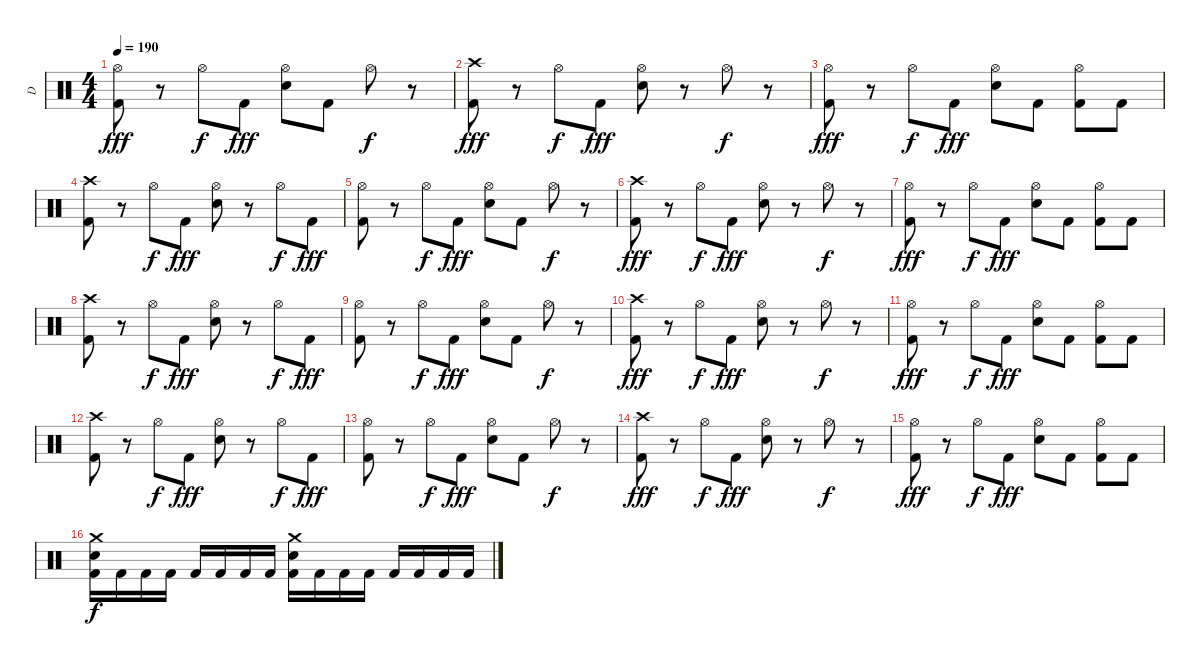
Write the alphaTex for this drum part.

\track ("D" "D") {instrument percussion}
\staff {score}
\articulation defaults
\ts (4 4)
\tempo 190
\clef neutral
\ks c
("Hi-Hat (open)" "Kick (hit) 2").8{dy fff} r.8 "Hi-Hat (open)".8{dy f} "Kick (hit) 2".8{dy fff} ("Hi-Hat (open)" "Electric Snare (hit)").8 "Kick (hit) 2".8 "Hi-Hat (open)".8{dy f} r.8 |
("Crash high (hit)" "Kick (hit) 2").8{dy fff} r.8 "Hi-Hat (open)".8{dy f} "Kick (hit) 2".8{dy fff} ("Hi-Hat (open)" "Electric Snare (hit)").8 r.8 "Hi-Hat (open)".8{dy f} r.8 |
("Hi-Hat (open)" "Kick (hit) 2").8{dy fff} r.8 "Hi-Hat (open)".8{dy f} "Kick (hit) 2".8{dy fff} ("Hi-Hat (open)" "Electric Snare (hit)").8 "Kick (hit) 2".8 ("Hi-Hat (open)" "Kick (hit) 2").8 "Kick (hit) 2".8 |
("Crash high (hit)" "Kick (hit) 2").8 r.8 "Hi-Hat (open)".8{dy f} "Kick (hit) 2".8{dy fff} ("Hi-Hat (open)" "Electric Snare (hit)").8 r.8 "Hi-Hat (open)".8{dy f} "Kick (hit) 2".8{dy fff} |
("Hi-Hat (open)" "Kick (hit) 2").8 r.8 "Hi-Hat (open)".8{dy f} "Kick (hit) 2".8{dy fff} ("Hi-Hat (open)" "Electric Snare (hit)").8 "Kick (hit) 2".8 "Hi-Hat (open)".8{dy f} r.8 |
("Crash high (hit)" "Kick (hit) 2").8{dy fff} r.8 "Hi-Hat (open)".8{dy f} "Kick (hit) 2".8{dy fff} ("Hi-Hat (open)" "Electric Snare (hit)").8 r.8 "Hi-Hat (open)".8{dy f} r.8 |
("Hi-Hat (open)" "Kick (hit) 2").8{dy fff} r.8 "Hi-Hat (open)".8{dy f} "Kick (hit) 2".8{dy fff} ("Hi-Hat (open)" "Electric Snare (hit)").8 "Kick (hit) 2".8 ("Hi-Hat (open)" "Kick (hit) 2").8 "Kick (hit) 2".8 |
("Crash high (hit)" "Kick (hit) 2").8 r.8 "Hi-Hat (open)".8{dy f} "Kick (hit) 2".8{dy fff} ("Hi-Hat (open)" "Electric Snare (hit)").8 r.8 "Hi-Hat (open)".8{dy f} "Kick (hit) 2".8{dy fff} |
("Hi-Hat (open)" "Kick (hit) 2").8 r.8 "Hi-Hat (open)".8{dy f} "Kick (hit) 2".8{dy fff} ("Hi-Hat (open)" "Electric Snare (hit)").8 "Kick (hit) 2".8 "Hi-Hat (open)".8{dy f} r.8 |
("Crash high (hit)" "Kick (hit) 2").8{dy fff} r.8 "Hi-Hat (open)".8{dy f} "Kick (hit) 2".8{dy fff} ("Hi-Hat (open)" "Electric Snare (hit)").8 r.8 "Hi-Hat (open)".8{dy f} r.8 |
("Hi-Hat (open)" "Kick (hit) 2").8{dy fff} r.8 "Hi-Hat (open)".8{dy f} "Kick (hit) 2".8{dy fff} ("Hi-Hat (open)" "Electric Snare (hit)").8 "Kick (hit) 2".8 ("Hi-Hat (open)" "Kick (hit) 2").8 "Kick (hit) 2".8 |
("Crash high (hit)" "Kick (hit) 2").8 r.8 "Hi-Hat (open)".8{dy f} "Kick (hit) 2".8{dy fff} ("Hi-Hat (open)" "Electric Snare (hit)").8 r.8 "Hi-Hat (open)".8{dy f} "Kick (hit) 2".8{dy fff} |
("Hi-Hat (open)" "Kick (hit) 2").8 r.8 "Hi-Hat (open)".8{dy f} "Kick (hit) 2".8{dy fff} ("Hi-Hat (open)" "Electric Snare (hit)").8 "Kick (hit) 2".8 "Hi-Hat (open)".8{dy f} r.8 |
("Crash high (hit)" "Kick (hit) 2").8{dy fff} r.8 "Hi-Hat (open)".8{dy f} "Kick (hit) 2".8{dy fff} ("Hi-Hat (open)" "Electric Snare (hit)").8 r.8 "Hi-Hat (open)".8{dy f} r.8 |
("Hi-Hat (open)" "Kick (hit) 2").8{dy fff} r.8 "Hi-Hat (open)".8{dy f} "Kick (hit) 2".8{dy fff} ("Hi-Hat (open)" "Electric Snare (hit)").8 "Kick (hit) 2".8 ("Hi-Hat (open)" "Kick (hit) 2").8 "Kick (hit) 2".8 |
("Crash medium (hit)" "Electric Snare (hit)" "Kick (hit) 2").16{dy f} "Kick (hit) 2".16 "Kick (hit) 2".16 "Kick (hit) 2".16 "Kick (hit) 2".16 "Kick (hit) 2".16 "Kick (hit) 2".16 "Kick (hit) 2".16 ("Crash medium (hit)" "Electric Snare (hit)" "Kick (hit) 2").16 "Kick (hit) 2".16 "Kick (hit) 2".16 "Kick (hit) 2".16 "Kick (hit) 2".16 "Kick (hit) 2".16 "Kick (hit) 2".16 "Kick (hit) 2".16
